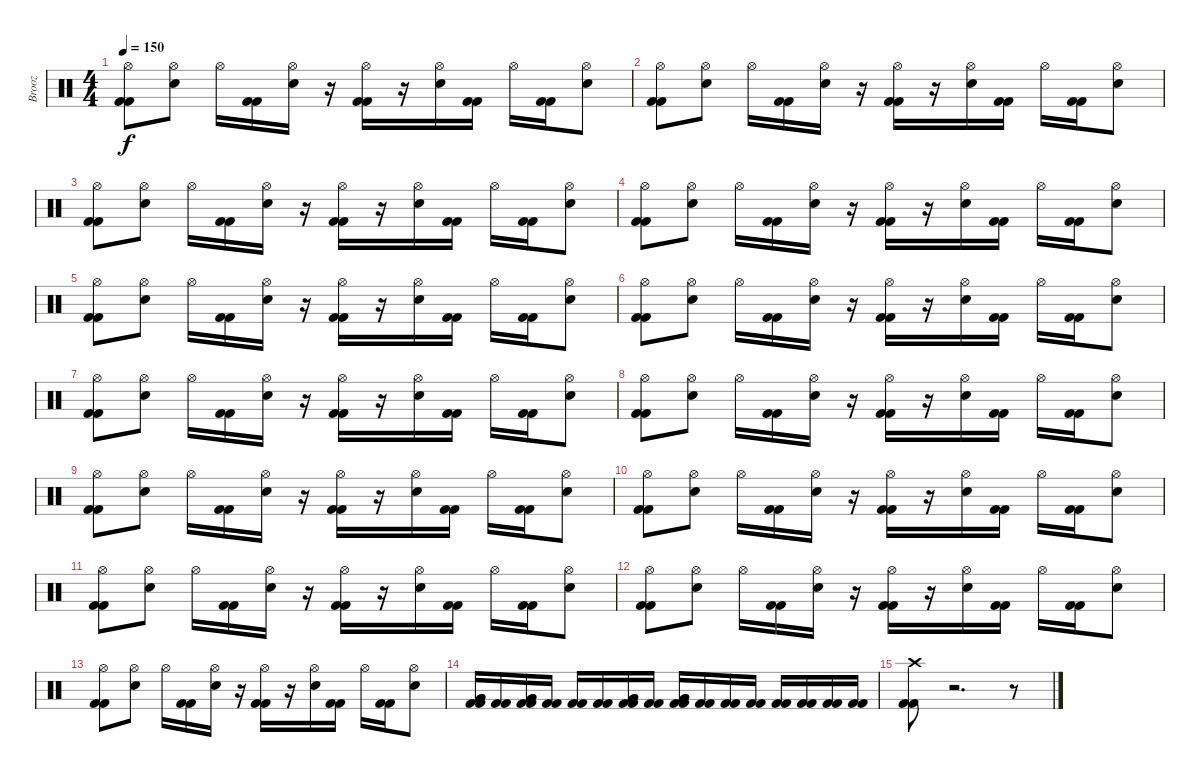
\track ("Brooz" "Brooz") {instrument percussion}
\staff {score}
\articulation defaults
\ts (4 4)
\tempo 150
\clef neutral
\ks c
("Hi-Hat (open)" "Kick (hit) 2" "Kick (hit) 2").8{dy f} ("Hi-Hat (open)" "Electric Snare (hit)").8 "Hi-Hat (open)".16 ("Kick (hit) 2" "Kick (hit) 2").16 ("Hi-Hat (open)" "Electric Snare (hit)").16 r.16 ("Hi-Hat (open)" "Kick (hit) 2" "Kick (hit) 2").16 r.16 ("Hi-Hat (open)" "Electric Snare (hit)").16 ("Kick (hit) 2" "Kick (hit) 2").16 "Hi-Hat (open)".16 ("Kick (hit) 2" "Kick (hit) 2").16 ("Hi-Hat (open)" "Electric Snare (hit)").8 |
("Hi-Hat (open)" "Kick (hit) 2" "Kick (hit) 2").8 ("Hi-Hat (open)" "Electric Snare (hit)").8 "Hi-Hat (open)".16 ("Kick (hit) 2" "Kick (hit) 2").16 ("Hi-Hat (open)" "Electric Snare (hit)").16 r.16 ("Hi-Hat (open)" "Kick (hit) 2" "Kick (hit) 2").16 r.16 ("Hi-Hat (open)" "Electric Snare (hit)").16 ("Kick (hit) 2" "Kick (hit) 2").16 "Hi-Hat (open)".16 ("Kick (hit) 2" "Kick (hit) 2").16 ("Hi-Hat (open)" "Electric Snare (hit)").8 |
("Hi-Hat (open)" "Kick (hit) 2" "Kick (hit) 2").8 ("Hi-Hat (open)" "Electric Snare (hit)").8 "Hi-Hat (open)".16 ("Kick (hit) 2" "Kick (hit) 2").16 ("Hi-Hat (open)" "Electric Snare (hit)").16 r.16 ("Hi-Hat (open)" "Kick (hit) 2" "Kick (hit) 2").16 r.16 ("Hi-Hat (open)" "Electric Snare (hit)").16 ("Kick (hit) 2" "Kick (hit) 2").16 "Hi-Hat (open)".16 ("Kick (hit) 2" "Kick (hit) 2").16 ("Hi-Hat (open)" "Electric Snare (hit)").8 |
("Hi-Hat (open)" "Kick (hit) 2" "Kick (hit) 2").8 ("Hi-Hat (open)" "Electric Snare (hit)").8 "Hi-Hat (open)".16 ("Kick (hit) 2" "Kick (hit) 2").16 ("Hi-Hat (open)" "Electric Snare (hit)").16 r.16 ("Hi-Hat (open)" "Kick (hit) 2" "Kick (hit) 2").16 r.16 ("Hi-Hat (open)" "Electric Snare (hit)").16 ("Kick (hit) 2" "Kick (hit) 2").16 "Hi-Hat (open)".16 ("Kick (hit) 2" "Kick (hit) 2").16 ("Hi-Hat (open)" "Electric Snare (hit)").8 |
("Hi-Hat (open)" "Kick (hit) 2" "Kick (hit) 2").8 ("Hi-Hat (open)" "Electric Snare (hit)").8 "Hi-Hat (open)".16 ("Kick (hit) 2" "Kick (hit) 2").16 ("Hi-Hat (open)" "Electric Snare (hit)").16 r.16 ("Hi-Hat (open)" "Kick (hit) 2" "Kick (hit) 2").16 r.16 ("Hi-Hat (open)" "Electric Snare (hit)").16 ("Kick (hit) 2" "Kick (hit) 2").16 "Hi-Hat (open)".16 ("Kick (hit) 2" "Kick (hit) 2").16 ("Hi-Hat (open)" "Electric Snare (hit)").8 |
("Hi-Hat (open)" "Kick (hit) 2" "Kick (hit) 2").8 ("Hi-Hat (open)" "Electric Snare (hit)").8 "Hi-Hat (open)".16 ("Kick (hit) 2" "Kick (hit) 2").16 ("Hi-Hat (open)" "Electric Snare (hit)").16 r.16 ("Hi-Hat (open)" "Kick (hit) 2" "Kick (hit) 2").16 r.16 ("Hi-Hat (open)" "Electric Snare (hit)").16 ("Kick (hit) 2" "Kick (hit) 2").16 "Hi-Hat (open)".16 ("Kick (hit) 2" "Kick (hit) 2").16 ("Hi-Hat (open)" "Electric Snare (hit)").8 |
("Hi-Hat (open)" "Kick (hit) 2" "Kick (hit) 2").8 ("Hi-Hat (open)" "Electric Snare (hit)").8 "Hi-Hat (open)".16 ("Kick (hit) 2" "Kick (hit) 2").16 ("Hi-Hat (open)" "Electric Snare (hit)").16 r.16 ("Hi-Hat (open)" "Kick (hit) 2" "Kick (hit) 2").16 r.16 ("Hi-Hat (open)" "Electric Snare (hit)").16 ("Kick (hit) 2" "Kick (hit) 2").16 "Hi-Hat (open)".16 ("Kick (hit) 2" "Kick (hit) 2").16 ("Hi-Hat (open)" "Electric Snare (hit)").8 |
("Hi-Hat (open)" "Kick (hit) 2" "Kick (hit) 2").8 ("Hi-Hat (open)" "Electric Snare (hit)").8 "Hi-Hat (open)".16 ("Kick (hit) 2" "Kick (hit) 2").16 ("Hi-Hat (open)" "Electric Snare (hit)").16 r.16 ("Hi-Hat (open)" "Kick (hit) 2" "Kick (hit) 2").16 r.16 ("Hi-Hat (open)" "Electric Snare (hit)").16 ("Kick (hit) 2" "Kick (hit) 2").16 "Hi-Hat (open)".16 ("Kick (hit) 2" "Kick (hit) 2").16 ("Hi-Hat (open)" "Electric Snare (hit)").8 |
("Hi-Hat (open)" "Kick (hit) 2" "Kick (hit) 2").8 ("Hi-Hat (open)" "Electric Snare (hit)").8 "Hi-Hat (open)".16 ("Kick (hit) 2" "Kick (hit) 2").16 ("Hi-Hat (open)" "Electric Snare (hit)").16 r.16 ("Hi-Hat (open)" "Kick (hit) 2" "Kick (hit) 2").16 r.16 ("Hi-Hat (open)" "Electric Snare (hit)").16 ("Kick (hit) 2" "Kick (hit) 2").16 "Hi-Hat (open)".16 ("Kick (hit) 2" "Kick (hit) 2").16 ("Hi-Hat (open)" "Electric Snare (hit)").8 |
("Hi-Hat (open)" "Kick (hit) 2" "Kick (hit) 2").8 ("Hi-Hat (open)" "Electric Snare (hit)").8 "Hi-Hat (open)".16 ("Kick (hit) 2" "Kick (hit) 2").16 ("Hi-Hat (open)" "Electric Snare (hit)").16 r.16 ("Hi-Hat (open)" "Kick (hit) 2" "Kick (hit) 2").16 r.16 ("Hi-Hat (open)" "Electric Snare (hit)").16 ("Kick (hit) 2" "Kick (hit) 2").16 "Hi-Hat (open)".16 ("Kick (hit) 2" "Kick (hit) 2").16 ("Hi-Hat (open)" "Electric Snare (hit)").8 |
("Hi-Hat (open)" "Kick (hit) 2" "Kick (hit) 2").8 ("Hi-Hat (open)" "Electric Snare (hit)").8 "Hi-Hat (open)".16 ("Kick (hit) 2" "Kick (hit) 2").16 ("Hi-Hat (open)" "Electric Snare (hit)").16 r.16 ("Hi-Hat (open)" "Kick (hit) 2" "Kick (hit) 2").16 r.16 ("Hi-Hat (open)" "Electric Snare (hit)").16 ("Kick (hit) 2" "Kick (hit) 2").16 "Hi-Hat (open)".16 ("Kick (hit) 2" "Kick (hit) 2").16 ("Hi-Hat (open)" "Electric Snare (hit)").8 |
("Hi-Hat (open)" "Kick (hit) 2" "Kick (hit) 2").8 ("Hi-Hat (open)" "Electric Snare (hit)").8 "Hi-Hat (open)".16 ("Kick (hit) 2" "Kick (hit) 2").16 ("Hi-Hat (open)" "Electric Snare (hit)").16 r.16 ("Hi-Hat (open)" "Kick (hit) 2" "Kick (hit) 2").16 r.16 ("Hi-Hat (open)" "Electric Snare (hit)").16 ("Kick (hit) 2" "Kick (hit) 2").16 "Hi-Hat (open)".16 ("Kick (hit) 2" "Kick (hit) 2").16 ("Hi-Hat (open)" "Electric Snare (hit)").8 |
("Hi-Hat (open)" "Kick (hit) 2" "Kick (hit) 2").8 ("Hi-Hat (open)" "Electric Snare (hit)").8 "Hi-Hat (open)".16 ("Kick (hit) 2" "Kick (hit) 2").16 ("Hi-Hat (open)" "Electric Snare (hit)").16 r.16 ("Hi-Hat (open)" "Kick (hit) 2" "Kick (hit) 2").16 r.16 ("Hi-Hat (open)" "Electric Snare (hit)").16 ("Kick (hit) 2" "Kick (hit) 2").16 "Hi-Hat (open)".16 ("Kick (hit) 2" "Kick (hit) 2").16 ("Hi-Hat (open)" "Electric Snare (hit)").8 |
("Very Low Tom (hit)" "Very Low Tom (hit)" "Kick (hit) 2" "Kick (hit) 2").16 ("Kick (hit) 2" "Kick (hit) 2").16 ("Very Low Tom (hit)" "Very Low Tom (hit)" "Kick (hit) 2" "Kick (hit) 2").16 ("Kick (hit) 2" "Kick (hit) 2").16 ("Kick (hit) 2" "Kick (hit) 2").16 ("Kick (hit) 2" "Kick (hit) 2").16 ("Very Low Tom (hit)" "Very Low Tom (hit)" "Kick (hit) 2" "Kick (hit) 2").16 ("Kick (hit) 2" "Kick (hit) 2").16 ("Very Low Tom (hit)" "Very Low Tom (hit)" "Kick (hit) 2" "Kick (hit) 2").16 ("Kick (hit) 2" "Kick (hit) 2").16 ("Kick (hit) 2" "Kick (hit) 2").16 ("Kick (hit) 2" "Kick (hit) 2").16 ("Kick (hit) 2" "Kick (hit) 2").16 ("Kick (hit) 2" "Kick (hit) 2").16 ("Kick (hit) 2" "Kick (hit) 2").16 ("Kick (hit) 2" "Kick (hit) 2").16 |
("Crash high (hit)" "Kick (hit) 2" "Kick (hit) 2").8 r.2{d} r.8
